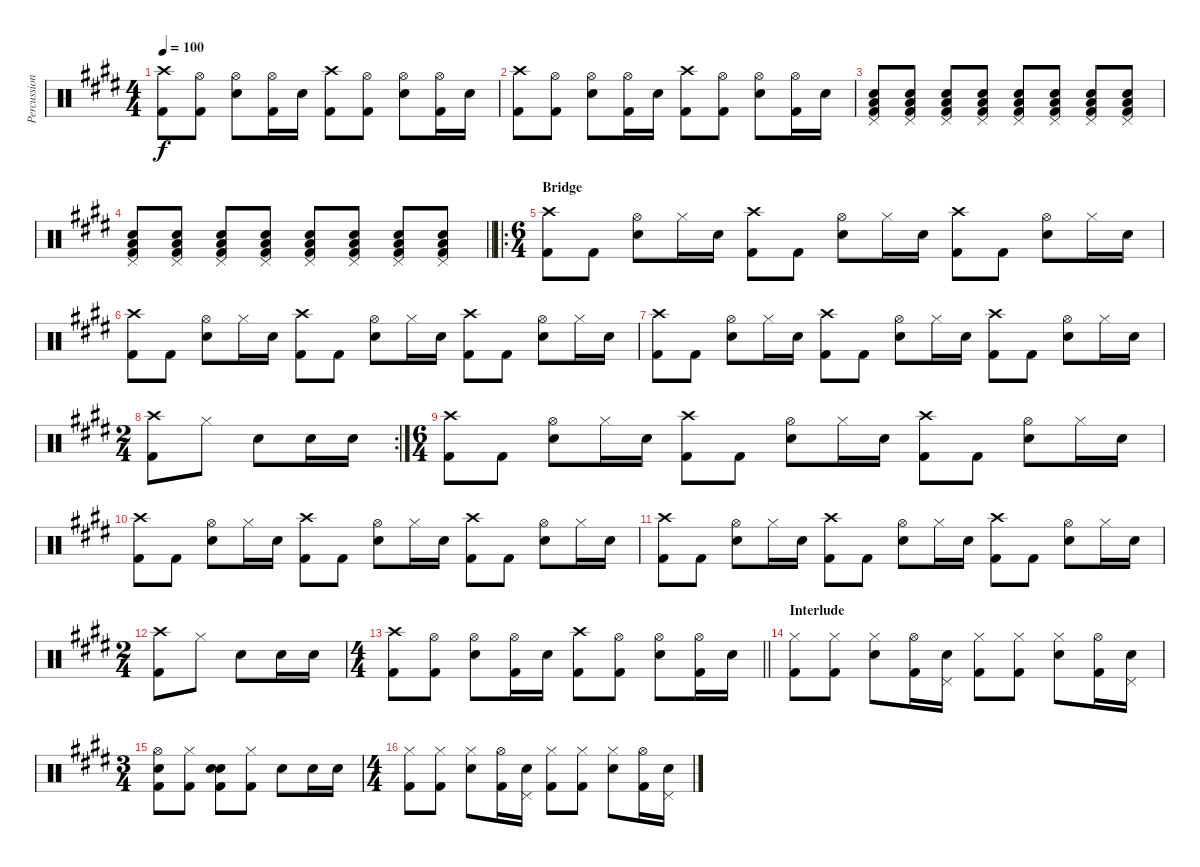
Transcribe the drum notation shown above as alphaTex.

\track ("Percussion" "Percussion") {instrument percussion}
\staff {score}
\articulation defaults
\ts (4 4)
\tempo 100
\clef neutral
\ks e
("Crash high (hit)" "Kick (hit) 2").8{dy f} ("Hi-Hat (open)" "Kick (hit) 2").8 ("Hi-Hat (open)" "Electric Snare (hit)").8 ("Hi-Hat (open)" "Kick (hit) 2").16 "Electric Snare (hit)".16 ("Crash high (hit)" "Kick (hit) 2").8 ("Hi-Hat (open)" "Kick (hit) 2").8 ("Hi-Hat (open)" "Electric Snare (hit)").8 ("Hi-Hat (open)" "Kick (hit) 2").16 "Electric Snare (hit)".16 |
("Crash high (hit)" "Kick (hit) 2").8 ("Hi-Hat (open)" "Kick (hit) 2").8 ("Hi-Hat (open)" "Electric Snare (hit)").8 ("Hi-Hat (open)" "Kick (hit) 2").16 "Electric Snare (hit)".16 ("Crash high (hit)" "Kick (hit) 2").8 ("Hi-Hat (open)" "Kick (hit) 2").8 ("Hi-Hat (open)" "Electric Snare (hit)").8 ("Hi-Hat (open)" "Kick (hit) 2").16 "Electric Snare (hit)".16 |
("Pedal Hi-Hat (hit)" "Electric Snare (hit)" "Kick (hit) 2" "Low Tom (hit)").8 ("Pedal Hi-Hat (hit)" "Electric Snare (hit)" "Kick (hit) 2" "Low Tom (hit)").8 ("Pedal Hi-Hat (hit)" "Electric Snare (hit)" "Kick (hit) 2" "Low Tom (hit)").8 ("Pedal Hi-Hat (hit)" "Electric Snare (hit)" "Kick (hit) 2" "Low Tom (hit)").8 ("Pedal Hi-Hat (hit)" "Electric Snare (hit)" "Kick (hit) 2" "Low Tom (hit)").8 ("Pedal Hi-Hat (hit)" "Electric Snare (hit)" "Kick (hit) 2" "Low Tom (hit)").8 ("Pedal Hi-Hat (hit)" "Electric Snare (hit)" "Kick (hit) 2" "Low Tom (hit)").8 ("Pedal Hi-Hat (hit)" "Electric Snare (hit)" "Kick (hit) 2" "Low Tom (hit)").8 |
\barLineRight lightlight
("Pedal Hi-Hat (hit)" "Electric Snare (hit)" "Kick (hit) 2" "Low Tom (hit)").8 ("Pedal Hi-Hat (hit)" "Electric Snare (hit)" "Kick (hit) 2" "Low Tom (hit)").8 ("Pedal Hi-Hat (hit)" "Electric Snare (hit)" "Kick (hit) 2" "Low Tom (hit)").8 ("Pedal Hi-Hat (hit)" "Electric Snare (hit)" "Kick (hit) 2" "Low Tom (hit)").8 ("Pedal Hi-Hat (hit)" "Electric Snare (hit)" "Kick (hit) 2" "Low Tom (hit)").8 ("Pedal Hi-Hat (hit)" "Electric Snare (hit)" "Kick (hit) 2" "Low Tom (hit)").8 ("Pedal Hi-Hat (hit)" "Electric Snare (hit)" "Kick (hit) 2" "Low Tom (hit)").8 ("Pedal Hi-Hat (hit)" "Electric Snare (hit)" "Kick (hit) 2" "Low Tom (hit)").8 |
\ro
\ts (6 4)
\section ("" "Bridge")
("Crash high (hit)" "Kick (hit) 2").8 "Kick (hit) 2".8 ("Hi-Hat (open)" "Electric Snare (hit)").8 "Hi-Hat (closed)".16 "Electric Snare (hit)".16 ("Crash high (hit)" "Kick (hit) 2").8 "Kick (hit) 2".8 ("Hi-Hat (open)" "Electric Snare (hit)").8 "Hi-Hat (closed)".16 "Electric Snare (hit)".16 ("Crash high (hit)" "Kick (hit) 2").8 "Kick (hit) 2".8 ("Hi-Hat (open)" "Electric Snare (hit)").8 "Hi-Hat (closed)".16 "Electric Snare (hit)".16 |
("Crash high (hit)" "Kick (hit) 2").8 "Kick (hit) 2".8 ("Hi-Hat (open)" "Electric Snare (hit)").8 "Hi-Hat (closed)".16 "Electric Snare (hit)".16 ("Crash high (hit)" "Kick (hit) 2").8 "Kick (hit) 2".8 ("Hi-Hat (open)" "Electric Snare (hit)").8 "Hi-Hat (closed)".16 "Electric Snare (hit)".16 ("Crash high (hit)" "Kick (hit) 2").8 "Kick (hit) 2".8 ("Hi-Hat (open)" "Electric Snare (hit)").8 "Hi-Hat (closed)".16 "Electric Snare (hit)".16 |
("Crash high (hit)" "Kick (hit) 2").8 "Kick (hit) 2".8 ("Hi-Hat (open)" "Electric Snare (hit)").8 "Hi-Hat (closed)".16 "Electric Snare (hit)".16 ("Crash high (hit)" "Kick (hit) 2").8 "Kick (hit) 2".8 ("Hi-Hat (open)" "Electric Snare (hit)").8 "Hi-Hat (closed)".16 "Electric Snare (hit)".16 ("Crash high (hit)" "Kick (hit) 2").8 "Kick (hit) 2".8 ("Hi-Hat (open)" "Electric Snare (hit)").8 "Hi-Hat (closed)".16 "Electric Snare (hit)".16 |
\rc 2
\ts (2 4)
("Crash high (hit)" "Kick (hit) 2").8 "Hi-Hat (closed)".8 "Electric Snare (hit)".8 "Electric Snare (hit)".16 "Electric Snare (hit)".16 |
\ts (6 4)
("Crash high (hit)" "Kick (hit) 2").8 "Kick (hit) 2".8 ("Hi-Hat (open)" "Electric Snare (hit)").8 "Hi-Hat (closed)".16 "Electric Snare (hit)".16 ("Crash high (hit)" "Kick (hit) 2").8 "Kick (hit) 2".8 ("Hi-Hat (open)" "Electric Snare (hit)").8 "Hi-Hat (closed)".16 "Electric Snare (hit)".16 ("Crash high (hit)" "Kick (hit) 2").8 "Kick (hit) 2".8 ("Hi-Hat (open)" "Electric Snare (hit)").8 "Hi-Hat (closed)".16 "Electric Snare (hit)".16 |
("Crash high (hit)" "Kick (hit) 2").8 "Kick (hit) 2".8 ("Hi-Hat (open)" "Electric Snare (hit)").8 "Hi-Hat (closed)".16 "Electric Snare (hit)".16 ("Crash high (hit)" "Kick (hit) 2").8 "Kick (hit) 2".8 ("Hi-Hat (open)" "Electric Snare (hit)").8 "Hi-Hat (closed)".16 "Electric Snare (hit)".16 ("Crash high (hit)" "Kick (hit) 2").8 "Kick (hit) 2".8 ("Hi-Hat (open)" "Electric Snare (hit)").8 "Hi-Hat (closed)".16 "Electric Snare (hit)".16 |
("Crash high (hit)" "Kick (hit) 2").8 "Kick (hit) 2".8 ("Hi-Hat (open)" "Electric Snare (hit)").8 "Hi-Hat (closed)".16 "Electric Snare (hit)".16 ("Crash high (hit)" "Kick (hit) 2").8 "Kick (hit) 2".8 ("Hi-Hat (open)" "Electric Snare (hit)").8 "Hi-Hat (closed)".16 "Electric Snare (hit)".16 ("Crash high (hit)" "Kick (hit) 2").8 "Kick (hit) 2".8 ("Hi-Hat (open)" "Electric Snare (hit)").8 "Hi-Hat (closed)".16 "Electric Snare (hit)".16 |
\ts (2 4)
("Crash high (hit)" "Kick (hit) 2").8 "Hi-Hat (closed)".8 "Electric Snare (hit)".8 "Electric Snare (hit)".16 "Electric Snare (hit)".16 |
\ts (4 4)
\barLineRight lightlight
("Crash high (hit)" "Kick (hit) 2").8 ("Hi-Hat (open)" "Kick (hit) 2").8 ("Hi-Hat (open)" "Electric Snare (hit)").8 ("Hi-Hat (open)" "Kick (hit) 2").16 "Electric Snare (hit)".16 ("Crash high (hit)" "Kick (hit) 2").8 ("Hi-Hat (open)" "Kick (hit) 2").8 ("Hi-Hat (open)" "Electric Snare (hit)").8 ("Hi-Hat (open)" "Kick (hit) 2").16 "Electric Snare (hit)".16 |
\section ("" "Interlude")
("Hi-Hat (closed)" "Kick (hit) 2").8 ("Hi-Hat (closed)" "Kick (hit) 2").8 ("Hi-Hat (closed)" "Electric Snare (hit)").8 ("Hi-Hat (open)" "Kick (hit) 2").16 ("Electric Snare (hit)" "Pedal Hi-Hat (hit)").16 ("Hi-Hat (closed)" "Kick (hit) 2").8 ("Hi-Hat (closed)" "Kick (hit) 2").8 ("Hi-Hat (closed)" "Electric Snare (hit)").8 ("Hi-Hat (open)" "Kick (hit) 2").16 ("Electric Snare (hit)" "Pedal Hi-Hat (hit)").16 |
\ts (3 4)
("Hi-Hat (open)" "Electric Snare (hit)" "Kick (hit) 2").8 ("Hi-Hat (closed)" "Kick (hit) 2").8 ("Snare (hit)" "Electric Snare (hit)" "Kick (hit) 2").8 ("Hi-Hat (closed)" "Kick (hit) 2").8 "Electric Snare (hit)".8 "Electric Snare (hit)".16 "Electric Snare (hit)".16 |
\ts (4 4)
("Hi-Hat (closed)" "Kick (hit) 2").8 ("Hi-Hat (closed)" "Kick (hit) 2").8 ("Hi-Hat (closed)" "Electric Snare (hit)").8 ("Hi-Hat (open)" "Kick (hit) 2").16 ("Electric Snare (hit)" "Pedal Hi-Hat (hit)").16 ("Hi-Hat (closed)" "Kick (hit) 2").8 ("Hi-Hat (closed)" "Kick (hit) 2").8 ("Hi-Hat (closed)" "Electric Snare (hit)").8 ("Hi-Hat (open)" "Kick (hit) 2").16 ("Electric Snare (hit)" "Pedal Hi-Hat (hit)").16
